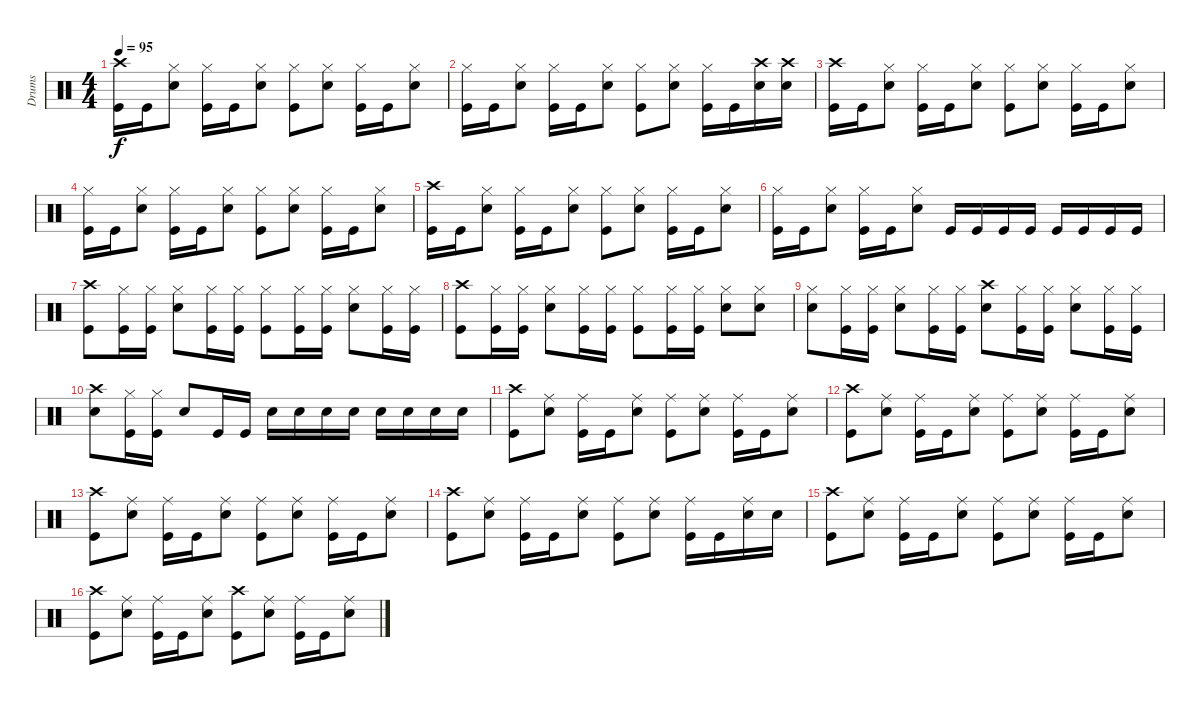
\track ("Drums" "Drums") {instrument percussion}
\staff {score}
\articulation defaults
\ts (4 4)
\tempo 95
\clef neutral
\ks c
("Crash high (hit)" "Kick (hit)").16{dy f} "Kick (hit)".16 ("Hi-Hat (closed)" "Snare (hit) 2").8 ("Hi-Hat (closed)" "Kick (hit)").16 "Kick (hit)".16 ("Hi-Hat (closed)" "Snare (hit) 2").8 ("Hi-Hat (closed)" "Kick (hit)").8 ("Hi-Hat (closed)" "Snare (hit) 2").8 ("Hi-Hat (closed)" "Kick (hit)").16 "Kick (hit)".16 ("Hi-Hat (closed)" "Snare (hit) 2").8 |
("Hi-Hat (closed)" "Kick (hit)").16 "Kick (hit)".16 ("Hi-Hat (closed)" "Snare (hit) 2").8 ("Hi-Hat (closed)" "Kick (hit)").16 "Kick (hit)".16 ("Hi-Hat (closed)" "Snare (hit) 2").8 ("Hi-Hat (closed)" "Kick (hit)").8 ("Hi-Hat (closed)" "Snare (hit) 2").8 ("Hi-Hat (closed)" "Kick (hit)").16 "Kick (hit)".16 ("Crash high (hit)" "Snare (hit) 2").16 ("Crash high (hit)" "Snare (hit) 2").16 |
("Crash high (hit)" "Kick (hit)").16 "Kick (hit)".16 ("Hi-Hat (closed)" "Snare (hit) 2").8 ("Hi-Hat (closed)" "Kick (hit)").16 "Kick (hit)".16 ("Hi-Hat (closed)" "Snare (hit) 2").8 ("Hi-Hat (closed)" "Kick (hit)").8 ("Hi-Hat (closed)" "Snare (hit) 2").8 ("Hi-Hat (closed)" "Kick (hit)").16 "Kick (hit)".16 ("Hi-Hat (closed)" "Snare (hit) 2").8 |
("Hi-Hat (closed)" "Kick (hit)").16 "Kick (hit)".16 ("Hi-Hat (closed)" "Snare (hit) 2").8 ("Hi-Hat (closed)" "Kick (hit)").16 "Kick (hit)".16 ("Hi-Hat (closed)" "Snare (hit) 2").8 ("Hi-Hat (closed)" "Kick (hit)").8 ("Hi-Hat (closed)" "Snare (hit) 2").8 ("Hi-Hat (closed)" "Kick (hit)").16 "Kick (hit)".16 ("Hi-Hat (closed)" "Snare (hit) 2").8 |
("Crash high (hit)" "Kick (hit)").16 "Kick (hit)".16 ("Hi-Hat (closed)" "Snare (hit) 2").8 ("Hi-Hat (closed)" "Kick (hit)").16 "Kick (hit)".16 ("Hi-Hat (closed)" "Snare (hit) 2").8 ("Hi-Hat (closed)" "Kick (hit)").8 ("Hi-Hat (closed)" "Snare (hit) 2").8 ("Hi-Hat (closed)" "Kick (hit)").16 "Kick (hit)".16 ("Hi-Hat (closed)" "Snare (hit) 2").8 |
("Hi-Hat (closed)" "Kick (hit)").16 "Kick (hit)".16 ("Hi-Hat (closed)" "Snare (hit) 2").8 ("Hi-Hat (closed)" "Kick (hit)").16 "Kick (hit)".16 ("Hi-Hat (closed)" "Snare (hit) 2").8 "Kick (hit)".16 "Kick (hit)".16 "Kick (hit)".16 "Kick (hit)".16 "Kick (hit)".16 "Kick (hit)".16 "Kick (hit)".16 "Kick (hit)".16 |
("Crash high (hit)" "Kick (hit)").8 ("Hi-Hat (closed)" "Kick (hit)").16 ("Hi-Hat (closed)" "Kick (hit)").16 ("Hi-Hat (closed)" "Snare (hit) 2").8 ("Hi-Hat (closed)" "Kick (hit)").16 ("Hi-Hat (closed)" "Kick (hit)").16 ("Hi-Hat (closed)" "Kick (hit)").8 ("Hi-Hat (closed)" "Kick (hit)").16 ("Hi-Hat (closed)" "Kick (hit)").16 ("Hi-Hat (closed)" "Snare (hit) 2").8 ("Hi-Hat (closed)" "Kick (hit)").16 ("Hi-Hat (closed)" "Kick (hit)").16 |
("Crash high (hit)" "Kick (hit)").8 ("Hi-Hat (closed)" "Kick (hit)").16 ("Hi-Hat (closed)" "Kick (hit)").16 ("Hi-Hat (closed)" "Snare (hit) 2").8 ("Hi-Hat (closed)" "Kick (hit)").16 ("Hi-Hat (closed)" "Kick (hit)").16 ("Hi-Hat (closed)" "Kick (hit)").8 ("Hi-Hat (closed)" "Kick (hit)").16 ("Hi-Hat (closed)" "Kick (hit)").16 ("Hi-Hat (closed)" "Snare (hit) 2").8 ("Hi-Hat (closed)" "Snare (hit) 2").8 |
("Hi-Hat (closed)" "Snare (hit) 2").8 ("Hi-Hat (closed)" "Kick (hit)").16 ("Hi-Hat (closed)" "Kick (hit)").16 ("Hi-Hat (closed)" "Snare (hit) 2").8 ("Hi-Hat (closed)" "Kick (hit)").16 ("Hi-Hat (closed)" "Kick (hit)").16 ("Crash high (hit)" "Snare (hit) 2").8 ("Hi-Hat (closed)" "Kick (hit)").16 ("Hi-Hat (closed)" "Kick (hit)").16 ("Hi-Hat (closed)" "Snare (hit) 2").8 ("Hi-Hat (closed)" "Kick (hit)").16 ("Hi-Hat (closed)" "Kick (hit)").16 |
("Crash high (hit)" "Snare (hit) 2").8 ("Hi-Hat (closed)" "Kick (hit)").16 ("Hi-Hat (closed)" "Kick (hit)").16 "Snare (hit) 2".8 "Kick (hit)".16 "Kick (hit)".16 "Snare (hit) 2".16 "Snare (hit) 2".16 "Snare (hit) 2".16 "Snare (hit) 2".16 "Snare (hit) 2".16 "Snare (hit) 2".16 "Snare (hit) 2".16 "Snare (hit) 2".16 |
("Crash high (hit)" "Kick (hit)").8 ("Ride (middle)" "Snare (hit) 2").8 ("Ride (middle)" "Kick (hit)").16 "Kick (hit)".16 ("Ride (middle)" "Snare (hit) 2").8 ("Ride (middle)" "Kick (hit)").8 ("Ride (middle)" "Snare (hit) 2").8 ("Ride (middle)" "Kick (hit)").16 "Kick (hit)".16 ("Ride (middle)" "Snare (hit) 2").8 |
("Crash high (hit)" "Kick (hit)").8 ("Ride (middle)" "Snare (hit) 2").8 ("Ride (middle)" "Kick (hit)").16 "Kick (hit)".16 ("Ride (middle)" "Snare (hit) 2").8 ("Ride (middle)" "Kick (hit)").8 ("Ride (middle)" "Snare (hit) 2").8 ("Ride (middle)" "Kick (hit)").16 "Kick (hit)".16 ("Ride (middle)" "Snare (hit) 2").8 |
("Crash high (hit)" "Kick (hit)").8 ("Ride (middle)" "Snare (hit) 2").8 ("Ride (middle)" "Kick (hit)").16 "Kick (hit)".16 ("Ride (middle)" "Snare (hit) 2").8 ("Ride (middle)" "Kick (hit)").8 ("Ride (middle)" "Snare (hit) 2").8 ("Ride (middle)" "Kick (hit)").16 "Kick (hit)".16 ("Ride (middle)" "Snare (hit) 2").8 |
("Crash high (hit)" "Kick (hit)").8 ("Ride (middle)" "Snare (hit) 2").8 ("Ride (middle)" "Kick (hit)").16 "Kick (hit)".16 ("Ride (middle)" "Snare (hit) 2").8 ("Ride (middle)" "Kick (hit)").8 ("Ride (middle)" "Snare (hit) 2").8 ("Ride (middle)" "Kick (hit)").16 "Kick (hit)".16 ("Ride (middle)" "Snare (hit) 2").16 "Snare (hit) 2".16 |
("Crash high (hit)" "Kick (hit)").8 ("Ride (middle)" "Snare (hit) 2").8 ("Ride (middle)" "Kick (hit)").16 "Kick (hit)".16 ("Ride (middle)" "Snare (hit) 2").8 ("Ride (middle)" "Kick (hit)").8 ("Ride (middle)" "Snare (hit) 2").8 ("Ride (middle)" "Kick (hit)").16 "Kick (hit)".16 ("Ride (middle)" "Snare (hit) 2").8 |
("Crash high (hit)" "Kick (hit)").8 ("Ride (middle)" "Snare (hit) 2").8 ("Ride (middle)" "Kick (hit)").16 "Kick (hit)".16 ("Ride (middle)" "Snare (hit) 2").8 ("Crash high (hit)" "Kick (hit)").8 ("Ride (middle)" "Snare (hit) 2").8 ("Ride (middle)" "Kick (hit)").16 "Kick (hit)".16 ("Ride (middle)" "Snare (hit) 2").8
